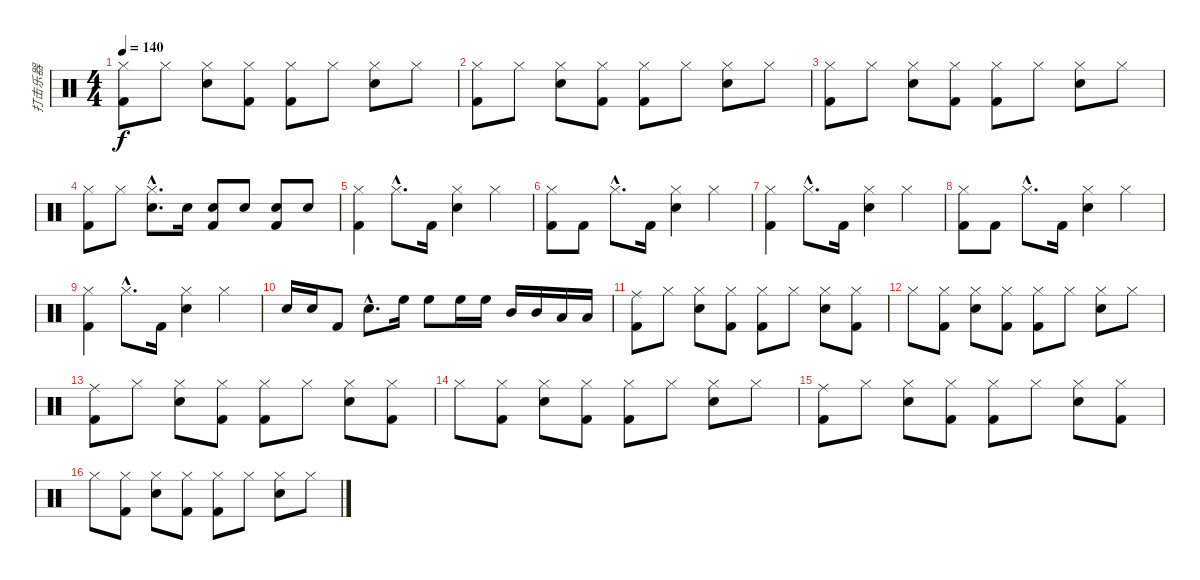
\track ("打击乐器" "打击乐器") {instrument percussion}
\staff {score}
\articulation defaults
\ts (4 4)
\tempo 140
\clef neutral
\ks c
("Hi-Hat (closed)" "Kick (hit) 2").8{dy f} "Hi-Hat (closed)".8 ("Hi-Hat (closed)" "Snare (hit) 2").8 ("Hi-Hat (closed)" "Kick (hit) 2").8 ("Hi-Hat (closed)" "Kick (hit) 2").8 "Hi-Hat (closed)".8 ("Hi-Hat (closed)" "Snare (hit) 2").8 "Hi-Hat (closed)".8 |
("Hi-Hat (closed)" "Kick (hit) 2").8 "Hi-Hat (closed)".8 ("Hi-Hat (closed)" "Snare (hit) 2").8 ("Hi-Hat (closed)" "Kick (hit) 2").8 ("Hi-Hat (closed)" "Kick (hit) 2").8 "Hi-Hat (closed)".8 ("Hi-Hat (closed)" "Snare (hit) 2").8 "Hi-Hat (closed)".8 |
("Hi-Hat (closed)" "Kick (hit) 2").8 "Hi-Hat (closed)".8 ("Hi-Hat (closed)" "Snare (hit) 2").8 ("Hi-Hat (closed)" "Kick (hit) 2").8 ("Hi-Hat (closed)" "Kick (hit) 2").8 "Hi-Hat (closed)".8 ("Hi-Hat (closed)" "Snare (hit) 2").8 "Hi-Hat (closed)".8 |
("Hi-Hat (closed)" "Kick (hit) 2").8 "Hi-Hat (closed)".8 ("Hi-Hat (closed)"{hac} "Snare (hit) 2"{hac}).8{d} "Snare (hit) 2".16 ("Snare (hit) 2" "Kick (hit) 2").8 "Snare (hit) 2".8 ("Snare (hit) 2" "Kick (hit) 2").8 "Snare (hit) 2".8 |
("Hi-Hat (closed)" "Kick (hit) 2").4 "Hi-Hat (closed)"{hac}.8{d} "Kick (hit) 2".16 ("Hi-Hat (closed)" "Snare (hit) 2").4 "Hi-Hat (closed)".4 |
("Hi-Hat (closed)" "Kick (hit) 2").8 "Kick (hit) 2".8 "Hi-Hat (closed)"{hac}.8{d} "Kick (hit) 2".16 ("Hi-Hat (closed)" "Snare (hit) 2").4 "Hi-Hat (closed)".4 |
("Hi-Hat (closed)" "Kick (hit) 2").4 "Hi-Hat (closed)"{hac}.8{d} "Kick (hit) 2".16 ("Hi-Hat (closed)" "Snare (hit) 2").4 "Hi-Hat (closed)".4 |
("Hi-Hat (closed)" "Kick (hit) 2").8 "Kick (hit) 2".8 "Hi-Hat (closed)"{hac}.8{d} "Kick (hit) 2".16 ("Hi-Hat (closed)" "Snare (hit) 2").4 "Hi-Hat (closed)".4 |
("Hi-Hat (closed)" "Kick (hit) 2").4 "Hi-Hat (closed)"{hac}.8{d} "Kick (hit) 2".16 ("Hi-Hat (closed)" "Snare (hit) 2").4 "Hi-Hat (closed)".4 |
"Snare (hit) 2".16 "Snare (hit) 2".16 "Kick (hit) 2".8 "Snare (hit) 2"{hac}.8{d} "High Floor Tom (hit)".16 "High Floor Tom (hit)".8 "High Floor Tom (hit)".16 "High Floor Tom (hit)".16 "Mid Tom (hit)".16 "Mid Tom (hit)".16 "Low Tom (hit)".16 "Low Tom (hit)".16 |
("Ride (middle)" "Kick (hit) 2").8 "Hi-Hat (closed)".8 ("Hi-Hat (closed)" "Snare (hit) 2").8 ("Hi-Hat (closed)" "Kick (hit) 2").8 ("Hi-Hat (closed)" "Kick (hit) 2").8 "Hi-Hat (closed)".8 ("Hi-Hat (closed)" "Snare (hit) 2").8 ("Hi-Hat (closed)" "Kick (hit) 2").8 |
"Hi-Hat (closed)".8 ("Hi-Hat (closed)" "Kick (hit) 2").8 ("Hi-Hat (closed)" "Snare (hit) 2").8 ("Hi-Hat (closed)" "Kick (hit) 2").8 ("Hi-Hat (closed)" "Kick (hit) 2").8 "Hi-Hat (closed)".8 ("Hi-Hat (closed)" "Snare (hit) 2").8 "Hi-Hat (closed)".8 |
("Ride (middle)" "Kick (hit) 2").8 "Hi-Hat (closed)".8 ("Hi-Hat (closed)" "Snare (hit) 2").8 ("Hi-Hat (closed)" "Kick (hit) 2").8 ("Hi-Hat (closed)" "Kick (hit) 2").8 "Hi-Hat (closed)".8 ("Hi-Hat (closed)" "Snare (hit) 2").8 ("Hi-Hat (closed)" "Kick (hit) 2").8 |
"Hi-Hat (closed)".8 ("Hi-Hat (closed)" "Kick (hit) 2").8 ("Hi-Hat (closed)" "Snare (hit) 2").8 ("Hi-Hat (closed)" "Kick (hit) 2").8 ("Hi-Hat (closed)" "Kick (hit) 2").8 "Hi-Hat (closed)".8 ("Hi-Hat (closed)" "Snare (hit) 2").8 "Hi-Hat (closed)".8 |
("Ride (middle)" "Kick (hit) 2").8 "Hi-Hat (closed)".8 ("Hi-Hat (closed)" "Snare (hit) 2").8 ("Hi-Hat (closed)" "Kick (hit) 2").8 ("Hi-Hat (closed)" "Kick (hit) 2").8 "Hi-Hat (closed)".8 ("Hi-Hat (closed)" "Snare (hit) 2").8 ("Hi-Hat (closed)" "Kick (hit) 2").8 |
"Hi-Hat (closed)".8 ("Hi-Hat (closed)" "Kick (hit) 2").8 ("Hi-Hat (closed)" "Snare (hit) 2").8 ("Hi-Hat (closed)" "Kick (hit) 2").8 ("Hi-Hat (closed)" "Kick (hit) 2").8 "Hi-Hat (closed)".8 ("Hi-Hat (closed)" "Snare (hit) 2").8 "Hi-Hat (closed)".8
